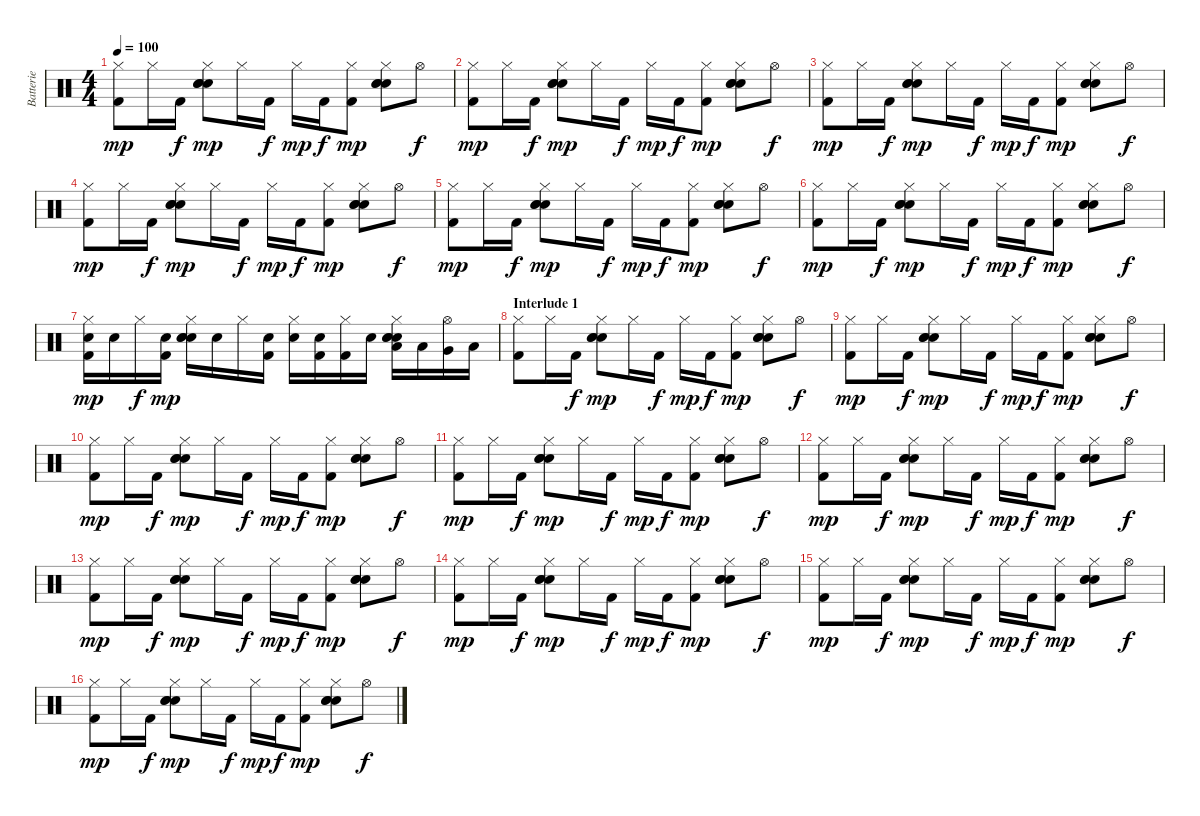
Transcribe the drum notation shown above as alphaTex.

\track ("Batterie" "Batterie") {instrument percussion}
\staff {score}
\articulation defaults
\ts (4 4)
\tempo 100
\clef neutral
\ks c
("Kick (hit) 2" "Hi-Hat (closed)").8{dy mp} "Hi-Hat (closed)".16 "Kick (hit) 2".16{dy f} ("Snare (hit) 2" "Snare (hit) 2" "Electric Snare (hit)" "Hi-Hat (closed)").8{dy mp} "Hi-Hat (closed)".16 "Kick (hit) 2".16{dy f} "Hi-Hat (closed)".16{dy mp} "Kick (hit) 2".16{dy f} ("Kick (hit) 2" "Hi-Hat (closed)").8{dy mp} ("Snare (hit) 2" "Snare (hit) 2" "Electric Snare (hit)" "Hi-Hat (closed)").8 "Hi-Hat (open)".8{dy f} |
("Kick (hit) 2" "Hi-Hat (closed)").8{dy mp} "Hi-Hat (closed)".16 "Kick (hit) 2".16{dy f} ("Snare (hit) 2" "Snare (hit) 2" "Electric Snare (hit)" "Hi-Hat (closed)").8{dy mp} "Hi-Hat (closed)".16 "Kick (hit) 2".16{dy f} "Hi-Hat (closed)".16{dy mp} "Kick (hit) 2".16{dy f} ("Kick (hit) 2" "Hi-Hat (closed)").8{dy mp} ("Snare (hit) 2" "Snare (hit) 2" "Electric Snare (hit)" "Hi-Hat (closed)").8 "Hi-Hat (open)".8{dy f} |
("Kick (hit) 2" "Hi-Hat (closed)").8{dy mp} "Hi-Hat (closed)".16 "Kick (hit) 2".16{dy f} ("Snare (hit) 2" "Snare (hit) 2" "Electric Snare (hit)" "Hi-Hat (closed)").8{dy mp} "Hi-Hat (closed)".16 "Kick (hit) 2".16{dy f} "Hi-Hat (closed)".16{dy mp} "Kick (hit) 2".16{dy f} ("Kick (hit) 2" "Hi-Hat (closed)").8{dy mp} ("Snare (hit) 2" "Snare (hit) 2" "Electric Snare (hit)" "Hi-Hat (closed)").8 "Hi-Hat (open)".8{dy f} |
("Kick (hit) 2" "Hi-Hat (closed)").8{dy mp} "Hi-Hat (closed)".16 "Kick (hit) 2".16{dy f} ("Snare (hit) 2" "Snare (hit) 2" "Electric Snare (hit)" "Hi-Hat (closed)").8{dy mp} "Hi-Hat (closed)".16 "Kick (hit) 2".16{dy f} "Hi-Hat (closed)".16{dy mp} "Kick (hit) 2".16{dy f} ("Kick (hit) 2" "Hi-Hat (closed)").8{dy mp} ("Snare (hit) 2" "Snare (hit) 2" "Electric Snare (hit)" "Hi-Hat (closed)").8 "Hi-Hat (open)".8{dy f} |
("Kick (hit) 2" "Hi-Hat (closed)").8{dy mp} "Hi-Hat (closed)".16 "Kick (hit) 2".16{dy f} ("Snare (hit) 2" "Snare (hit) 2" "Electric Snare (hit)" "Hi-Hat (closed)").8{dy mp} "Hi-Hat (closed)".16 "Kick (hit) 2".16{dy f} "Hi-Hat (closed)".16{dy mp} "Kick (hit) 2".16{dy f} ("Kick (hit) 2" "Hi-Hat (closed)").8{dy mp} ("Snare (hit) 2" "Snare (hit) 2" "Electric Snare (hit)" "Hi-Hat (closed)").8 "Hi-Hat (open)".8{dy f} |
("Kick (hit) 2" "Hi-Hat (closed)").8{dy mp} "Hi-Hat (closed)".16 "Kick (hit) 2".16{dy f} ("Snare (hit) 2" "Snare (hit) 2" "Electric Snare (hit)" "Hi-Hat (closed)").8{dy mp} "Hi-Hat (closed)".16 "Kick (hit) 2".16{dy f} "Hi-Hat (closed)".16{dy mp} "Kick (hit) 2".16{dy f} ("Kick (hit) 2" "Hi-Hat (closed)").8{dy mp} ("Snare (hit) 2" "Snare (hit) 2" "Electric Snare (hit)" "Hi-Hat (closed)").8 "Hi-Hat (open)".8{dy f} |
("Electric Snare (hit)" "Kick (hit) 2" "Hi-Hat (closed)").16{dy mp} "Electric Snare (hit)".16 "Hi-Hat (closed)".16{dy f} ("Electric Snare (hit)" "Kick (hit) 2").16{dy mp} ("Snare (hit) 2" "Snare (hit) 2" "Electric Snare (hit)" "Hi-Hat (closed)").16 "Electric Snare (hit)".16 "Hi-Hat (closed)".16 ("Electric Snare (hit)" "Kick (hit) 2").16 ("Electric Snare (hit)" "Hi-Hat (closed)").16 ("Electric Snare (hit)" "Kick (hit) 2").16 ("Kick (hit) 2" "Hi-Hat (closed)").16 "Electric Snare (hit)".16 ("Low Tom (hit)" "Snare (hit) 2" "Snare (hit) 2" "Electric Snare (hit)" "Hi-Hat (closed)").16 "Low Tom (hit)".16 ("Very Low Tom (hit)" "Hi-Hat (open)").16 "Low Floor Tom (hit)".16 |
\section ("" "Interlude 1")
("Kick (hit) 2" "Hi-Hat (closed)").8 "Hi-Hat (closed)".16 "Kick (hit) 2".16{dy f} ("Snare (hit) 2" "Snare (hit) 2" "Electric Snare (hit)" "Hi-Hat (closed)").8{dy mp} "Hi-Hat (closed)".16 "Kick (hit) 2".16{dy f} "Hi-Hat (closed)".16{dy mp} "Kick (hit) 2".16{dy f} ("Kick (hit) 2" "Hi-Hat (closed)").8{dy mp} ("Snare (hit) 2" "Snare (hit) 2" "Electric Snare (hit)" "Hi-Hat (closed)").8 "Hi-Hat (open)".8{dy f} |
("Kick (hit) 2" "Hi-Hat (closed)").8{dy mp} "Hi-Hat (closed)".16 "Kick (hit) 2".16{dy f} ("Snare (hit) 2" "Snare (hit) 2" "Electric Snare (hit)" "Hi-Hat (closed)").8{dy mp} "Hi-Hat (closed)".16 "Kick (hit) 2".16{dy f} "Hi-Hat (closed)".16{dy mp} "Kick (hit) 2".16{dy f} ("Kick (hit) 2" "Hi-Hat (closed)").8{dy mp} ("Snare (hit) 2" "Snare (hit) 2" "Electric Snare (hit)" "Hi-Hat (closed)").8 "Hi-Hat (open)".8{dy f} |
("Kick (hit) 2" "Hi-Hat (closed)").8{dy mp} "Hi-Hat (closed)".16 "Kick (hit) 2".16{dy f} ("Snare (hit) 2" "Snare (hit) 2" "Electric Snare (hit)" "Hi-Hat (closed)").8{dy mp} "Hi-Hat (closed)".16 "Kick (hit) 2".16{dy f} "Hi-Hat (closed)".16{dy mp} "Kick (hit) 2".16{dy f} ("Kick (hit) 2" "Hi-Hat (closed)").8{dy mp} ("Snare (hit) 2" "Snare (hit) 2" "Electric Snare (hit)" "Hi-Hat (closed)").8 "Hi-Hat (open)".8{dy f} |
("Kick (hit) 2" "Hi-Hat (closed)").8{dy mp} "Hi-Hat (closed)".16 "Kick (hit) 2".16{dy f} ("Snare (hit) 2" "Snare (hit) 2" "Electric Snare (hit)" "Hi-Hat (closed)").8{dy mp} "Hi-Hat (closed)".16 "Kick (hit) 2".16{dy f} "Hi-Hat (closed)".16{dy mp} "Kick (hit) 2".16{dy f} ("Kick (hit) 2" "Hi-Hat (closed)").8{dy mp} ("Snare (hit) 2" "Snare (hit) 2" "Electric Snare (hit)" "Hi-Hat (closed)").8 "Hi-Hat (open)".8{dy f} |
("Kick (hit) 2" "Hi-Hat (closed)").8{dy mp} "Hi-Hat (closed)".16 "Kick (hit) 2".16{dy f} ("Snare (hit) 2" "Snare (hit) 2" "Electric Snare (hit)" "Hi-Hat (closed)").8{dy mp} "Hi-Hat (closed)".16 "Kick (hit) 2".16{dy f} "Hi-Hat (closed)".16{dy mp} "Kick (hit) 2".16{dy f} ("Kick (hit) 2" "Hi-Hat (closed)").8{dy mp} ("Snare (hit) 2" "Snare (hit) 2" "Electric Snare (hit)" "Hi-Hat (closed)").8 "Hi-Hat (open)".8{dy f} |
("Kick (hit) 2" "Hi-Hat (closed)").8{dy mp} "Hi-Hat (closed)".16 "Kick (hit) 2".16{dy f} ("Snare (hit) 2" "Snare (hit) 2" "Electric Snare (hit)" "Hi-Hat (closed)").8{dy mp} "Hi-Hat (closed)".16 "Kick (hit) 2".16{dy f} "Hi-Hat (closed)".16{dy mp} "Kick (hit) 2".16{dy f} ("Kick (hit) 2" "Hi-Hat (closed)").8{dy mp} ("Snare (hit) 2" "Snare (hit) 2" "Electric Snare (hit)" "Hi-Hat (closed)").8 "Hi-Hat (open)".8{dy f} |
("Kick (hit) 2" "Hi-Hat (closed)").8{dy mp} "Hi-Hat (closed)".16 "Kick (hit) 2".16{dy f} ("Snare (hit) 2" "Snare (hit) 2" "Electric Snare (hit)" "Hi-Hat (closed)").8{dy mp} "Hi-Hat (closed)".16 "Kick (hit) 2".16{dy f} "Hi-Hat (closed)".16{dy mp} "Kick (hit) 2".16{dy f} ("Kick (hit) 2" "Hi-Hat (closed)").8{dy mp} ("Snare (hit) 2" "Snare (hit) 2" "Electric Snare (hit)" "Hi-Hat (closed)").8 "Hi-Hat (open)".8{dy f} |
("Kick (hit) 2" "Hi-Hat (closed)").8{dy mp} "Hi-Hat (closed)".16 "Kick (hit) 2".16{dy f} ("Snare (hit) 2" "Snare (hit) 2" "Electric Snare (hit)" "Hi-Hat (closed)").8{dy mp} "Hi-Hat (closed)".16 "Kick (hit) 2".16{dy f} "Hi-Hat (closed)".16{dy mp} "Kick (hit) 2".16{dy f} ("Kick (hit) 2" "Hi-Hat (closed)").8{dy mp} ("Snare (hit) 2" "Snare (hit) 2" "Electric Snare (hit)" "Hi-Hat (closed)").8 "Hi-Hat (open)".8{dy f} |
("Kick (hit) 2" "Hi-Hat (closed)").8{dy mp} "Hi-Hat (closed)".16 "Kick (hit) 2".16{dy f} ("Snare (hit) 2" "Snare (hit) 2" "Electric Snare (hit)" "Hi-Hat (closed)").8{dy mp} "Hi-Hat (closed)".16 "Kick (hit) 2".16{dy f} "Hi-Hat (closed)".16{dy mp} "Kick (hit) 2".16{dy f} ("Kick (hit) 2" "Hi-Hat (closed)").8{dy mp} ("Snare (hit) 2" "Snare (hit) 2" "Electric Snare (hit)" "Hi-Hat (closed)").8 "Hi-Hat (open)".8{dy f}
